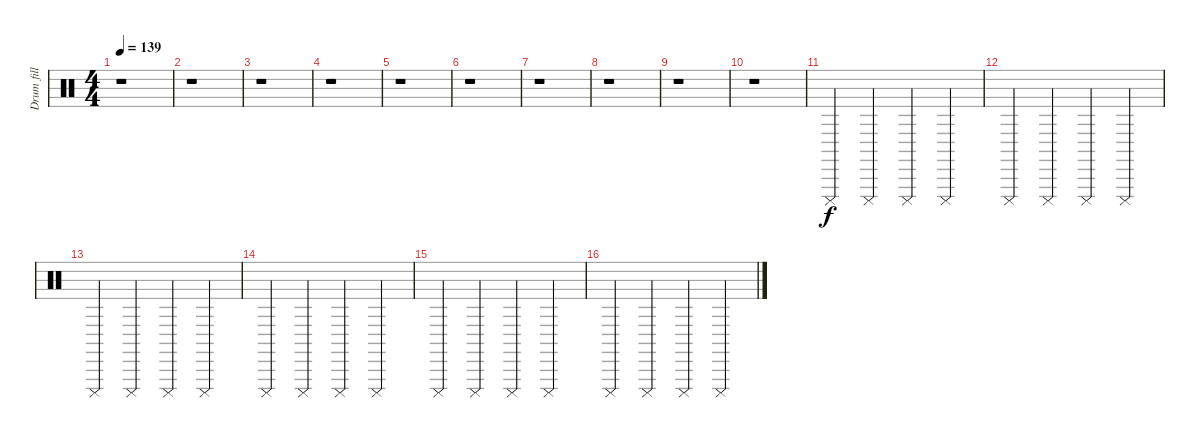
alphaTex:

\track ("Drum fill" "Drum fill") {instrument percussion}
\staff {score}
\articulation defaults
\ts (4 4)
\tempo 139
\clef neutral
\ks c
r.1{dy f} |
r.1 |
r.1 |
r.1 |
r.1 |
r.1 |
r.1 |
r.1 |
r.1 |
r.1 |
"Cuica (mute)".4 "Cuica (mute)".4 "Cuica (mute)".4 "Cuica (mute)".4 |
"Cuica (mute)".4 "Cuica (mute)".4 "Cuica (mute)".4 "Cuica (mute)".4 |
"Cuica (mute)".4 "Cuica (mute)".4 "Cuica (mute)".4 "Cuica (mute)".4 |
"Cuica (mute)".4 "Cuica (mute)".4 "Cuica (mute)".4 "Cuica (mute)".4 |
"Cuica (mute)".4 "Cuica (mute)".4 "Cuica (mute)".4 "Cuica (mute)".4 |
"Cuica (mute)".4 "Cuica (mute)".4 "Cuica (mute)".4 "Cuica (mute)".4
